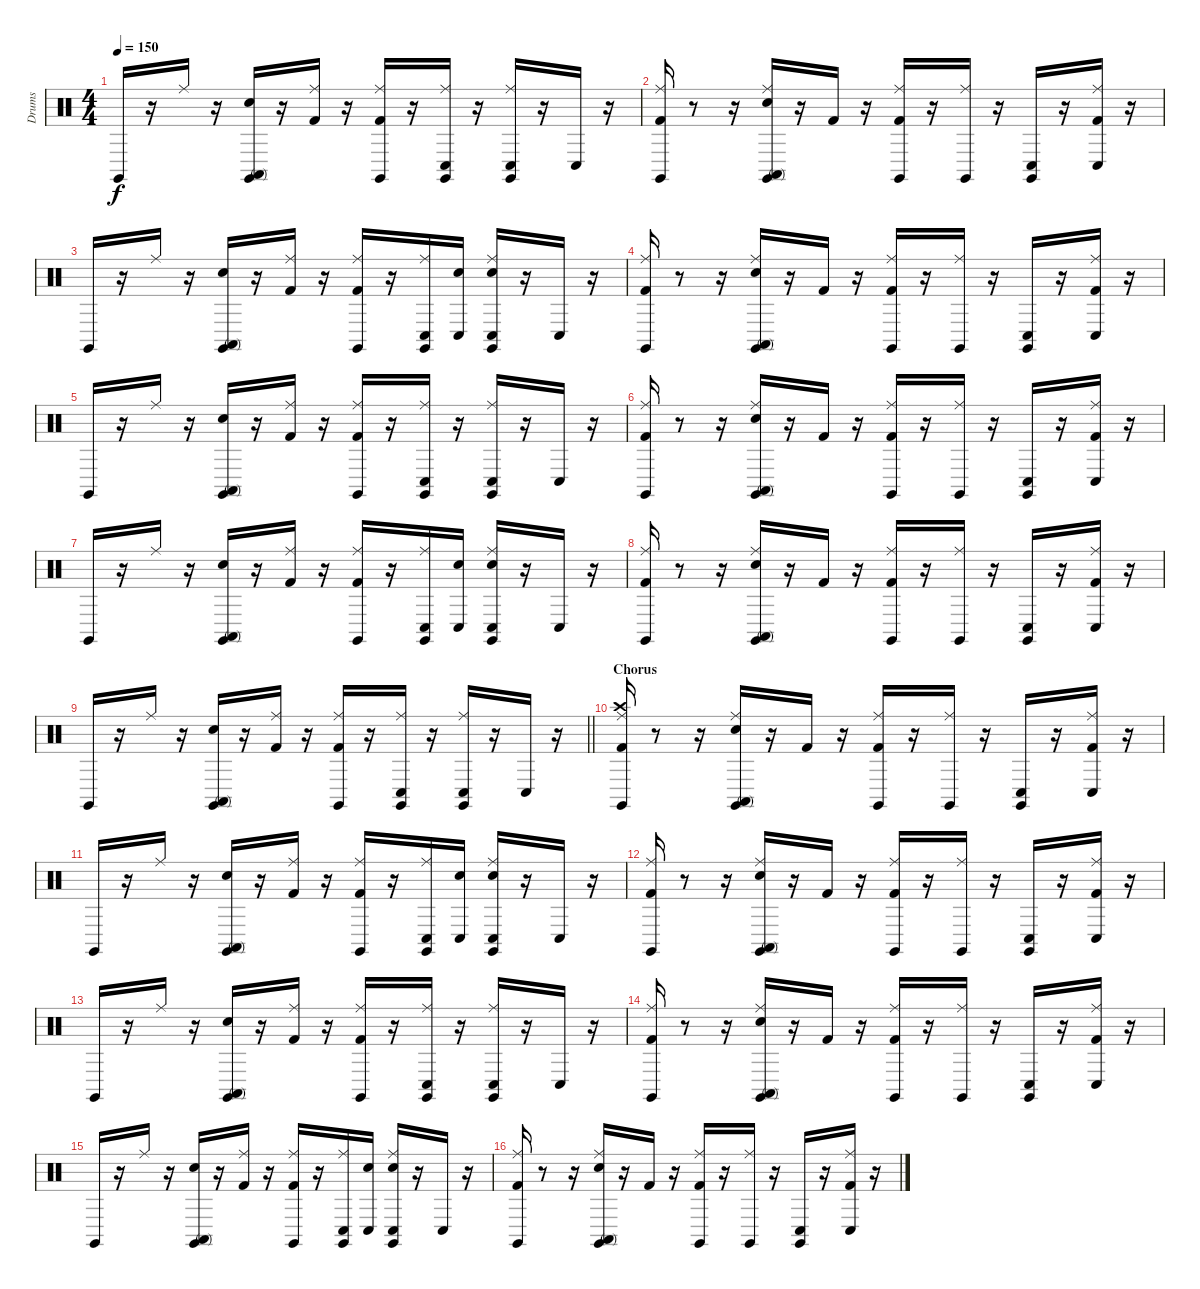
\track ("Drums" "Drums") {instrument percussion}
\staff {score}
\articulation defaults
\ts (4 4)
\tempo 150
\clef neutral
\ks c "Claves (hit)".16{dy f}
r.16 "Ride (middle)".16 r.16 ("Snare (hit) 2" "Conga high (mute)" "Claves (hit)").16 r.16 ("Kick (hit) 2" "Ride (middle)").16 r.16 ("Kick (hit) 2" "Ride (middle)" "Claves (hit)").16 r.16 ("Ride (middle)" "Conga low (hit)" "Claves (hit)").16 r.16 ("Ride (middle)" "Conga low (hit)" "Claves (hit)").16 r.16 "Conga low (hit)".16 r.16 |
("Kick (hit) 2" "Ride (middle)" "Claves (hit)").16 r.8 r.16 ("Snare (hit) 2" "Ride (middle)" "Conga high (mute)" "Claves (hit)").16 r.16 "Kick (hit) 2".16 r.16 ("Kick (hit) 2" "Ride (middle)" "Claves (hit)").16 r.16 ("Ride (middle)" "Claves (hit)").16 r.16 ("Conga low (hit)" "Claves (hit)").16 r.16 ("Kick (hit) 2" "Ride (middle)" "Conga low (hit)").16 r.16 |
"Claves (hit)".16 r.16 "Ride (middle)".16 r.16 ("Snare (hit) 2" "Conga high (mute)" "Claves (hit)").16 r.16 ("Kick (hit) 2" "Ride (middle)").16 r.16 ("Kick (hit) 2" "Ride (middle)" "Claves (hit)").16 r.16 ("Ride (middle)" "Conga low (hit)" "Claves (hit)").16 ("Snare (hit)" "Conga low (hit)").16 ("Snare (hit)" "Ride (middle)" "Conga low (hit)" "Claves (hit)").16 r.16 "Conga low (hit)".16 r.16 |
("Kick (hit) 2" "Ride (middle)" "Claves (hit)").16 r.8 r.16 ("Snare (hit) 2" "Ride (middle)" "Conga high (mute)" "Claves (hit)").16 r.16 "Kick (hit) 2".16 r.16 ("Kick (hit) 2" "Ride (middle)" "Claves (hit)").16 r.16 ("Ride (middle)" "Claves (hit)").16 r.16 ("Conga low (hit)" "Claves (hit)").16 r.16 ("Kick (hit) 2" "Ride (middle)" "Conga low (hit)").16 r.16 |
"Claves (hit)".16 r.16 "Ride (middle)".16 r.16 ("Snare (hit) 2" "Conga high (mute)" "Claves (hit)").16 r.16 ("Kick (hit) 2" "Ride (middle)").16 r.16 ("Kick (hit) 2" "Ride (middle)" "Claves (hit)").16 r.16 ("Ride (middle)" "Conga low (hit)" "Claves (hit)").16 r.16 ("Ride (middle)" "Conga low (hit)" "Claves (hit)").16 r.16 "Conga low (hit)".16 r.16 |
("Kick (hit) 2" "Ride (middle)" "Claves (hit)").16 r.8 r.16 ("Snare (hit) 2" "Ride (middle)" "Conga high (mute)" "Claves (hit)").16 r.16 "Kick (hit) 2".16 r.16 ("Kick (hit) 2" "Ride (middle)" "Claves (hit)").16 r.16 ("Ride (middle)" "Claves (hit)").16 r.16 ("Conga low (hit)" "Claves (hit)").16 r.16 ("Kick (hit) 2" "Ride (middle)" "Conga low (hit)").16 r.16 |
"Claves (hit)".16 r.16 "Ride (middle)".16 r.16 ("Snare (hit) 2" "Conga high (mute)" "Claves (hit)").16 r.16 ("Kick (hit) 2" "Ride (middle)").16 r.16 ("Kick (hit) 2" "Ride (middle)" "Claves (hit)").16 r.16 ("Ride (middle)" "Conga low (hit)" "Claves (hit)").16 ("Snare (hit)" "Conga low (hit)").16 ("Snare (hit)" "Ride (middle)" "Conga low (hit)" "Claves (hit)").16 r.16 "Conga low (hit)".16 r.16 |
("Kick (hit) 2" "Ride (middle)" "Claves (hit)").16 r.8 r.16 ("Snare (hit) 2" "Ride (middle)" "Conga high (mute)" "Claves (hit)").16 r.16 "Kick (hit) 2".16 r.16 ("Kick (hit) 2" "Ride (middle)" "Claves (hit)").16 r.16 ("Ride (middle)" "Claves (hit)").16 r.16 ("Conga low (hit)" "Claves (hit)").16 r.16 ("Kick (hit) 2" "Ride (middle)" "Conga low (hit)").16 r.16 |
\barLineRight lightlight "Claves (hit)".16
r.16 "Ride (middle)".16 r.16 ("Snare (hit) 2" "Conga high (mute)" "Claves (hit)").16 r.16 ("Kick (hit) 2" "Ride (middle)").16 r.16 ("Kick (hit) 2" "Ride (middle)" "Claves (hit)").16 r.16 ("Ride (middle)" "Conga low (hit)" "Claves (hit)").16 r.16 ("Ride (middle)" "Conga low (hit)" "Claves (hit)").16 r.16 "Conga low (hit)".16 r.16 |
\section ("" "Chorus")
("Kick (hit) 2" "Crash high (hit)" "Ride (middle)" "Claves (hit)").16 r.8 r.16 ("Snare (hit) 2" "Ride (middle)" "Conga high (mute)" "Claves (hit)").16 r.16 "Kick (hit) 2".16 r.16 ("Kick (hit) 2" "Ride (middle)" "Claves (hit)").16 r.16 ("Ride (middle)" "Claves (hit)").16 r.16 ("Conga low (hit)" "Claves (hit)").16 r.16 ("Kick (hit) 2" "Ride (middle)" "Conga low (hit)").16 r.16 |
"Claves (hit)".16 r.16 "Ride (middle)".16 r.16 ("Snare (hit) 2" "Conga high (mute)" "Claves (hit)").16 r.16 ("Kick (hit) 2" "Ride (middle)").16 r.16 ("Kick (hit) 2" "Ride (middle)" "Claves (hit)").16 r.16 ("Ride (middle)" "Conga low (hit)" "Claves (hit)").16 ("Snare (hit)" "Conga low (hit)").16 ("Snare (hit)" "Ride (middle)" "Conga low (hit)" "Claves (hit)").16 r.16 "Conga low (hit)".16 r.16 |
("Kick (hit) 2" "Ride (middle)" "Claves (hit)").16 r.8 r.16 ("Snare (hit) 2" "Ride (middle)" "Conga high (mute)" "Claves (hit)").16 r.16 "Kick (hit) 2".16 r.16 ("Kick (hit) 2" "Ride (middle)" "Claves (hit)").16 r.16 ("Ride (middle)" "Claves (hit)").16 r.16 ("Conga low (hit)" "Claves (hit)").16 r.16 ("Kick (hit) 2" "Ride (middle)" "Conga low (hit)").16 r.16 |
"Claves (hit)".16 r.16 "Ride (middle)".16 r.16 ("Snare (hit) 2" "Conga high (mute)" "Claves (hit)").16 r.16 ("Kick (hit) 2" "Ride (middle)").16 r.16 ("Kick (hit) 2" "Ride (middle)" "Claves (hit)").16 r.16 ("Ride (middle)" "Conga low (hit)" "Claves (hit)").16 r.16 ("Ride (middle)" "Conga low (hit)" "Claves (hit)").16 r.16 "Conga low (hit)".16 r.16 |
("Kick (hit) 2" "Ride (middle)" "Claves (hit)").16 r.8 r.16 ("Snare (hit) 2" "Ride (middle)" "Conga high (mute)" "Claves (hit)").16 r.16 "Kick (hit) 2".16 r.16 ("Kick (hit) 2" "Ride (middle)" "Claves (hit)").16 r.16 ("Ride (middle)" "Claves (hit)").16 r.16 ("Conga low (hit)" "Claves (hit)").16 r.16 ("Kick (hit) 2" "Ride (middle)" "Conga low (hit)").16 r.16 |
"Claves (hit)".16 r.16 "Ride (middle)".16 r.16 ("Snare (hit) 2" "Conga high (mute)" "Claves (hit)").16 r.16 ("Kick (hit) 2" "Ride (middle)").16 r.16 ("Kick (hit) 2" "Ride (middle)" "Claves (hit)").16 r.16 ("Ride (middle)" "Conga low (hit)" "Claves (hit)").16 ("Snare (hit)" "Conga low (hit)").16 ("Snare (hit)" "Ride (middle)" "Conga low (hit)" "Claves (hit)").16 r.16 "Conga low (hit)".16 r.16 |
("Kick (hit) 2" "Ride (middle)" "Claves (hit)").16 r.8 r.16 ("Snare (hit) 2" "Ride (middle)" "Conga high (mute)" "Claves (hit)").16 r.16 "Kick (hit) 2".16 r.16 ("Kick (hit) 2" "Ride (middle)" "Claves (hit)").16 r.16 ("Ride (middle)" "Claves (hit)").16 r.16 ("Conga low (hit)" "Claves (hit)").16 r.16 ("Kick (hit) 2" "Ride (middle)" "Conga low (hit)").16 r.16
